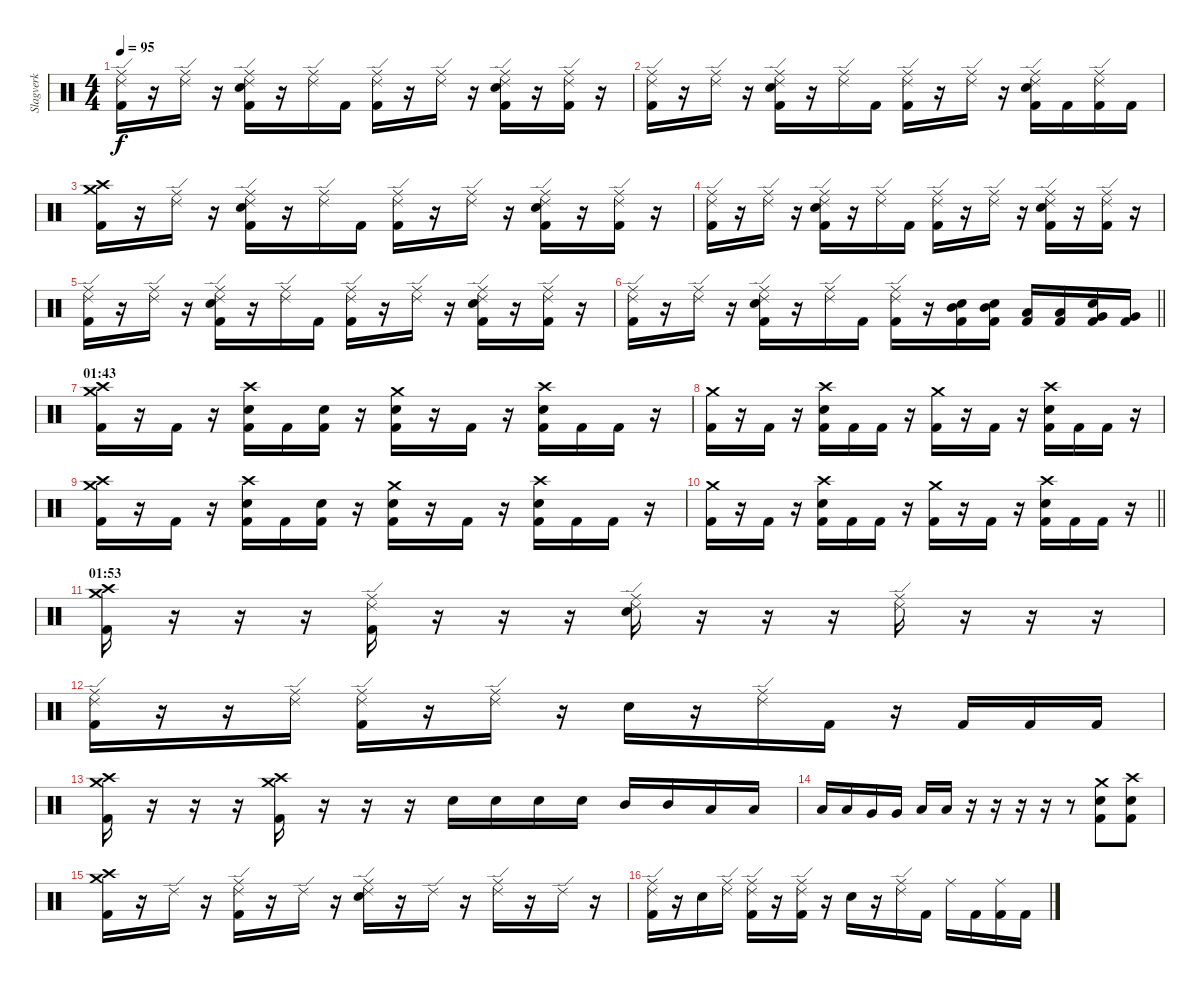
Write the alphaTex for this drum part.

\track ("Slagverk" "Slagverk") {instrument percussion}
\staff {score}
\articulation defaults
\ts (4 4)
\tempo 95
\clef neutral
\ks c
("Ride (middle)" "Ride (edge) 2" "Kick (hit) 2").16{dy f} r.16 ("Ride (middle)" "Ride (edge) 2").16 r.16 ("Ride (middle)" "Ride (edge) 2" "Electric Snare (hit)" "Kick (hit) 2").16 r.16 ("Ride (middle)" "Ride (edge) 2").16 "Kick (hit) 2".16 ("Ride (middle)" "Ride (edge) 2" "Kick (hit) 2").16 r.16 ("Ride (middle)" "Ride (edge) 2").16 r.16 ("Ride (middle)" "Ride (edge) 2" "Electric Snare (hit)" "Kick (hit) 2").16 r.16 ("Ride (middle)" "Ride (edge) 2" "Kick (hit) 2").16 r.16 |
("Ride (middle)" "Ride (edge) 2" "Kick (hit) 2").16 r.16 ("Ride (middle)" "Ride (edge) 2").16 r.16 ("Ride (middle)" "Ride (edge) 2" "Electric Snare (hit)" "Kick (hit) 2").16 r.16 ("Ride (middle)" "Ride (edge) 2").16 "Kick (hit) 2".16 ("Ride (middle)" "Ride (edge) 2" "Kick (hit) 2").16 r.16 ("Ride (middle)" "Ride (edge) 2").16 r.16 ("Ride (middle)" "Ride (edge) 2" "Electric Snare (hit)" "Kick (hit) 2").16 "Kick (hit) 2".16 ("Ride (middle)" "Ride (edge) 2" "Kick (hit) 2").16 "Kick (hit) 2".16 |
("Crash medium (hit)" "Crash high (hit)" "Kick (hit) 2").16 r.16 ("Ride (middle)" "Ride (edge) 2").16 r.16 ("Ride (middle)" "Ride (edge) 2" "Electric Snare (hit)" "Kick (hit) 2").16 r.16 ("Ride (middle)" "Ride (edge) 2").16 "Kick (hit) 2".16 ("Ride (middle)" "Ride (edge) 2" "Kick (hit) 2").16 r.16 ("Ride (middle)" "Ride (edge) 2").16 r.16 ("Ride (middle)" "Ride (edge) 2" "Electric Snare (hit)" "Kick (hit) 2").16 r.16 ("Ride (middle)" "Ride (edge) 2" "Kick (hit) 2").16 r.16 |
("Ride (middle)" "Ride (edge) 2" "Kick (hit) 2").16 r.16 ("Ride (middle)" "Ride (edge) 2").16 r.16 ("Ride (middle)" "Ride (edge) 2" "Electric Snare (hit)" "Kick (hit) 2").16 r.16 ("Ride (middle)" "Ride (edge) 2").16 "Kick (hit) 2".16 ("Ride (middle)" "Ride (edge) 2" "Kick (hit) 2").16 r.16 ("Ride (middle)" "Ride (edge) 2").16 r.16 ("Ride (middle)" "Ride (edge) 2" "Electric Snare (hit)" "Kick (hit) 2").16 r.16 ("Ride (middle)" "Ride (edge) 2" "Kick (hit) 2").16 r.16 |
("Ride (middle)" "Ride (edge) 2" "Kick (hit) 2").16 r.16 ("Ride (middle)" "Ride (edge) 2").16 r.16 ("Ride (middle)" "Ride (edge) 2" "Electric Snare (hit)" "Kick (hit) 2").16 r.16 ("Ride (middle)" "Ride (edge) 2").16 "Kick (hit) 2".16 ("Ride (middle)" "Ride (edge) 2" "Kick (hit) 2").16 r.16 ("Ride (middle)" "Ride (edge) 2").16 r.16 ("Ride (middle)" "Ride (edge) 2" "Electric Snare (hit)" "Kick (hit) 2").16 r.16 ("Ride (middle)" "Ride (edge) 2" "Kick (hit) 2").16 r.16 |
\barLineRight lightlight
("Ride (middle)" "Ride (edge) 2" "Kick (hit) 2").16 r.16 ("Ride (middle)" "Ride (edge) 2").16 r.16 ("Ride (middle)" "Ride (edge) 2" "Electric Snare (hit)" "Kick (hit) 2").16 r.16 ("Ride (middle)" "Ride (edge) 2").16 "Kick (hit) 2".16 ("Ride (middle)" "Ride (edge) 2" "Kick (hit) 2").16 r.16 ("Mid Tom (hit)" "Electric Snare (hit)" "Kick (hit) 2").16 ("Mid Tom (hit)" "Electric Snare (hit)" "Kick (hit) 2").16 ("Low Tom (hit)" "Kick (hit) 2").16 ("Low Tom (hit)" "Kick (hit) 2").16 ("Very Low Tom (hit)" "Electric Snare (hit)" "Kick (hit) 2").16 ("Very Low Tom (hit)" "Kick (hit) 2").16 |
\section ("" "01:43")
("Crash medium (hit)" "Crash high (hit)" "Kick (hit) 2").16 r.16 "Kick (hit) 2".16 r.16 ("Crash high (hit)" "Electric Snare (hit)" "Kick (hit) 2").16 "Kick (hit) 2".16 ("Electric Snare (hit)" "Kick (hit) 2").16 r.16 ("Crash medium (hit)" "Electric Snare (hit)" "Kick (hit) 2").16 r.16 "Kick (hit) 2".16 r.16 ("Crash high (hit)" "Electric Snare (hit)" "Kick (hit) 2").16 "Kick (hit) 2".16 "Kick (hit) 2".16 r.16 |
("Crash medium (hit)" "Kick (hit) 2").16 r.16 "Kick (hit) 2".16 r.16 ("Crash high (hit)" "Electric Snare (hit)" "Kick (hit) 2").16 "Kick (hit) 2".16 "Kick (hit) 2".16 r.16 ("Crash medium (hit)" "Kick (hit) 2").16 r.16 "Kick (hit) 2".16 r.16 ("Crash high (hit)" "Electric Snare (hit)" "Kick (hit) 2").16 "Kick (hit) 2".16 "Kick (hit) 2".16 r.16 |
("Crash medium (hit)" "Crash high (hit)" "Kick (hit) 2").16 r.16 "Kick (hit) 2".16 r.16 ("Crash high (hit)" "Electric Snare (hit)" "Kick (hit) 2").16 "Kick (hit) 2".16 ("Electric Snare (hit)" "Kick (hit) 2").16 r.16 ("Crash medium (hit)" "Electric Snare (hit)" "Kick (hit) 2").16 r.16 "Kick (hit) 2".16 r.16 ("Crash high (hit)" "Electric Snare (hit)" "Kick (hit) 2").16 "Kick (hit) 2".16 "Kick (hit) 2".16 r.16 |
\barLineRight lightlight
("Crash medium (hit)" "Kick (hit) 2").16 r.16 "Kick (hit) 2".16 r.16 ("Crash high (hit)" "Electric Snare (hit)" "Kick (hit) 2").16 "Kick (hit) 2".16 "Kick (hit) 2".16 r.16 ("Crash medium (hit)" "Kick (hit) 2").16 r.16 "Kick (hit) 2".16 r.16 ("Crash high (hit)" "Electric Snare (hit)" "Kick (hit) 2").16 "Kick (hit) 2".16 "Kick (hit) 2".16 r.16 |
\section ("" "01:53")
("Crash medium (hit)" "Crash high (hit)" "Kick (hit) 2").16 r.16 r.16 r.16 ("Ride (middle)" "Ride (edge) 2" "Kick (hit) 2").16 r.16 r.16 r.16 ("Ride (middle)" "Ride (edge) 2" "Electric Snare (hit)").16 r.16 r.16 r.16 ("Ride (middle)" "Ride (edge) 2").16 r.16 r.16 r.16 |
("Ride (edge) 2" "Ride (middle)" "Kick (hit) 2").16 r.16 r.16 ("Ride (edge) 2" "Ride (middle)").16 ("Ride (edge) 2" "Ride (middle)" "Kick (hit) 2").16 r.16 ("Ride (edge) 2" "Ride (middle)").16 r.16 "Electric Snare (hit)".16 r.16 ("Ride (edge) 2" "Ride (middle)").16 "Kick (hit) 2".16 r.16 "Kick (hit) 2".16 "Kick (hit) 2".16 "Kick (hit) 2".16 |
("Crash medium (hit)" "Crash high (hit)" "Kick (hit) 2").16 r.16 r.16 r.16 ("Crash medium (hit)" "Crash high (hit)" "Kick (hit) 2").16 r.16 r.16 r.16 "Electric Snare (hit)".16 "Electric Snare (hit)".16 "Electric Snare (hit)".16 "Electric Snare (hit)".16 "Mid Tom (hit)".16 "Mid Tom (hit)".16 "Low Tom (hit)".16 "Low Tom (hit)".16 |
"Low Tom (hit)".16 "Low Tom (hit)".16 "Very Low Tom (hit)".16 "Very Low Tom (hit)".16 "Low Floor Tom (hit)".16 "Low Floor Tom (hit)".16 r.16 r.16 r.16 r.16 r.8 ("Crash medium (hit)" "Electric Snare (hit)" "Kick (hit) 2").8 ("Crash high (hit)" "Electric Snare (hit)" "Kick (hit) 2").8 |
("Crash medium (hit)" "Crash high (hit)" "Kick (hit) 2").16 r.16 "Ride (edge) 2".16 r.16 ("Ride (middle)" "Ride (edge) 2" "Kick (hit) 2").16 r.16 "Ride (edge) 2".16 r.16 ("Ride (middle)" "Ride (edge) 2" "Electric Snare (hit)").16 r.16 "Ride (edge) 2".16 r.16 ("Ride (middle)" "Ride (edge) 2").16 r.16 "Ride (edge) 2".16 r.16 |
("Ride (edge) 2" "Ride (middle)" "Kick (hit) 2").16 r.16 "Electric Snare (hit)".16 ("Ride (edge) 2" "Ride (middle)").16 ("Ride (edge) 2" "Ride (middle)" "Kick (hit) 2").16 r.16 ("Ride (edge) 2" "Ride (middle)" "Kick (hit) 2").16 r.16 "Electric Snare (hit)".16 r.16 ("Ride (edge) 2" "Ride (middle)").16 "Kick (hit) 2".16 "Ride (middle)".16 "Kick (hit) 2".16 ("Ride (middle)" "Kick (hit) 2").16 "Kick (hit) 2".16
